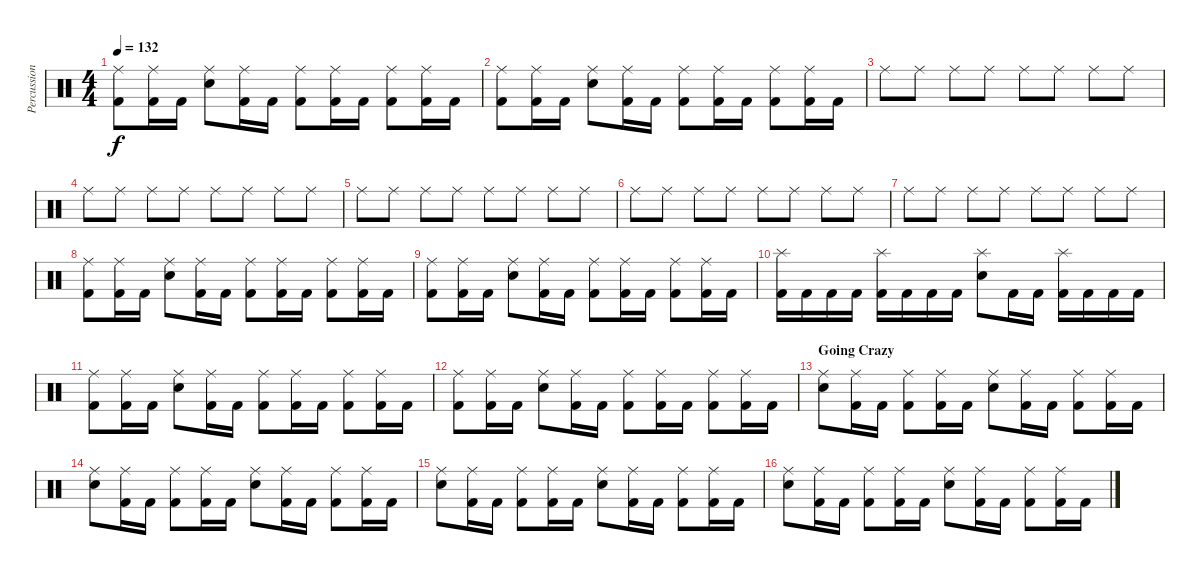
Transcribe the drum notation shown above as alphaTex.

\track ("Percussion" "Percussion") {instrument percussion}
\staff {score}
\articulation defaults
\ts (4 4)
\tempo 132
\clef neutral
\ks c
("Ride (middle)" "Kick (hit) 2").8{dy f} ("Ride (middle)" "Kick (hit) 2").16 "Kick (hit) 2".16 ("Ride (middle)" "Snare (hit) 2").8 ("Ride (middle)" "Kick (hit) 2").16 "Kick (hit) 2".16 ("Ride (middle)" "Kick (hit) 2").8 ("Ride (middle)" "Kick (hit) 2").16 "Kick (hit) 2".16 ("Ride (middle)" "Kick (hit) 2").8 ("Ride (middle)" "Kick (hit) 2").16 "Kick (hit) 2".16 |
("Ride (middle)" "Kick (hit) 2").8 ("Ride (middle)" "Kick (hit) 2").16 "Kick (hit) 2".16 ("Ride (middle)" "Snare (hit) 2").8 ("Ride (middle)" "Kick (hit) 2").16 "Kick (hit) 2".16 ("Ride (middle)" "Kick (hit) 2").8 ("Ride (middle)" "Kick (hit) 2").16 "Kick (hit) 2".16 ("Ride (middle)" "Kick (hit) 2").8 ("Ride (middle)" "Kick (hit) 2").16 "Kick (hit) 2".16 |
"Ride (middle)".8 "Ride (middle)".8 "Ride (middle)".8 "Ride (middle)".8 "Ride (middle)".8 "Ride (middle)".8 "Ride (middle)".8 "Ride (middle)".8 |
"Ride (middle)".8 "Ride (middle)".8 "Ride (middle)".8 "Ride (middle)".8 "Ride (middle)".8 "Ride (middle)".8 "Ride (middle)".8 "Ride (middle)".8 |
"Ride (middle)".8 "Ride (middle)".8 "Ride (middle)".8 "Ride (middle)".8 "Ride (middle)".8 "Ride (middle)".8 "Ride (middle)".8 "Ride (middle)".8 |
"Ride (middle)".8 "Ride (middle)".8 "Ride (middle)".8 "Ride (middle)".8 "Ride (middle)".8 "Ride (middle)".8 "Ride (middle)".8 "Ride (middle)".8 |
"Ride (middle)".8 "Ride (middle)".8 "Ride (middle)".8 "Ride (middle)".8 "Ride (middle)".8 "Ride (middle)".8 "Ride (middle)".8 "Ride (middle)".8 |
("Ride (middle)" "Kick (hit) 2").8 ("Ride (middle)" "Kick (hit) 2").16 "Kick (hit) 2".16 ("Ride (middle)" "Snare (hit) 2").8 ("Ride (middle)" "Kick (hit) 2").16 "Kick (hit) 2".16 ("Ride (middle)" "Kick (hit) 2").8 ("Ride (middle)" "Kick (hit) 2").16 "Kick (hit) 2".16 ("Ride (middle)" "Kick (hit) 2").8 ("Ride (middle)" "Kick (hit) 2").16 "Kick (hit) 2".16 |
("Ride (middle)" "Kick (hit) 2").8 ("Ride (middle)" "Kick (hit) 2").16 "Kick (hit) 2".16 ("Ride (middle)" "Snare (hit) 2").8 ("Ride (middle)" "Kick (hit) 2").16 "Kick (hit) 2".16 ("Ride (middle)" "Kick (hit) 2").8 ("Ride (middle)" "Kick (hit) 2").16 "Kick (hit) 2".16 ("Ride (middle)" "Kick (hit) 2").8 ("Ride (middle)" "Kick (hit) 2").16 "Kick (hit) 2".16 |
("Splash (hit)" "Kick (hit) 2").16 "Kick (hit) 2".16 "Kick (hit) 2".16 "Kick (hit) 2".16 ("Splash (hit)" "Kick (hit) 2").16 "Kick (hit) 2".16 "Kick (hit) 2".16 "Kick (hit) 2".16 ("Splash (hit)" "Snare (hit) 2").8 "Kick (hit) 2".16 "Kick (hit) 2".16 ("Splash (hit)" "Kick (hit) 2").16 "Kick (hit) 2".16 "Kick (hit) 2".16 "Kick (hit) 2".16 |
("Ride (middle)" "Kick (hit) 2").8 ("Ride (middle)" "Kick (hit) 2").16 "Kick (hit) 2".16 ("Ride (middle)" "Snare (hit) 2").8 ("Ride (middle)" "Kick (hit) 2").16 "Kick (hit) 2".16 ("Ride (middle)" "Kick (hit) 2").8 ("Ride (middle)" "Kick (hit) 2").16 "Kick (hit) 2".16 ("Ride (middle)" "Kick (hit) 2").8 ("Ride (middle)" "Kick (hit) 2").16 "Kick (hit) 2".16 |
("Ride (middle)" "Kick (hit) 2").8 ("Ride (middle)" "Kick (hit) 2").16 "Kick (hit) 2".16 ("Ride (middle)" "Snare (hit) 2").8 ("Ride (middle)" "Kick (hit) 2").16 "Kick (hit) 2".16 ("Ride (middle)" "Kick (hit) 2").8 ("Ride (middle)" "Kick (hit) 2").16 "Kick (hit) 2".16 ("Ride (middle)" "Kick (hit) 2").8 ("Ride (middle)" "Kick (hit) 2").16 "Kick (hit) 2".16 |
\section ("" "Going Crazy")
("Ride (middle)" "Snare (hit) 2").8 ("Ride (middle)" "Kick (hit) 2").16 "Kick (hit) 2".16 ("Ride (middle)" "Kick (hit) 2").8 ("Ride (middle)" "Kick (hit) 2").16 "Kick (hit) 2".16 ("Ride (middle)" "Snare (hit) 2").8 ("Ride (middle)" "Kick (hit) 2").16 "Kick (hit) 2".16 ("Ride (middle)" "Kick (hit) 2").8 ("Ride (middle)" "Kick (hit) 2").16 "Kick (hit) 2".16 |
("Ride (middle)" "Snare (hit) 2").8 ("Ride (middle)" "Kick (hit) 2").16 "Kick (hit) 2".16 ("Ride (middle)" "Kick (hit) 2").8 ("Ride (middle)" "Kick (hit) 2").16 "Kick (hit) 2".16 ("Ride (middle)" "Snare (hit) 2").8 ("Ride (middle)" "Kick (hit) 2").16 "Kick (hit) 2".16 ("Ride (middle)" "Kick (hit) 2").8 ("Ride (middle)" "Kick (hit) 2").16 "Kick (hit) 2".16 |
("Ride (middle)" "Snare (hit) 2").8 ("Ride (middle)" "Kick (hit) 2").16 "Kick (hit) 2".16 ("Ride (middle)" "Kick (hit) 2").8 ("Ride (middle)" "Kick (hit) 2").16 "Kick (hit) 2".16 ("Ride (middle)" "Snare (hit) 2").8 ("Ride (middle)" "Kick (hit) 2").16 "Kick (hit) 2".16 ("Ride (middle)" "Kick (hit) 2").8 ("Ride (middle)" "Kick (hit) 2").16 "Kick (hit) 2".16 |
("Ride (middle)" "Snare (hit) 2").8 ("Ride (middle)" "Kick (hit) 2").16 "Kick (hit) 2".16 ("Ride (middle)" "Kick (hit) 2").8 ("Ride (middle)" "Kick (hit) 2").16 "Kick (hit) 2".16 ("Ride (middle)" "Snare (hit) 2").8 ("Ride (middle)" "Kick (hit) 2").16 "Kick (hit) 2".16 ("Ride (middle)" "Kick (hit) 2").8 ("Ride (middle)" "Kick (hit) 2").16 "Kick (hit) 2".16
